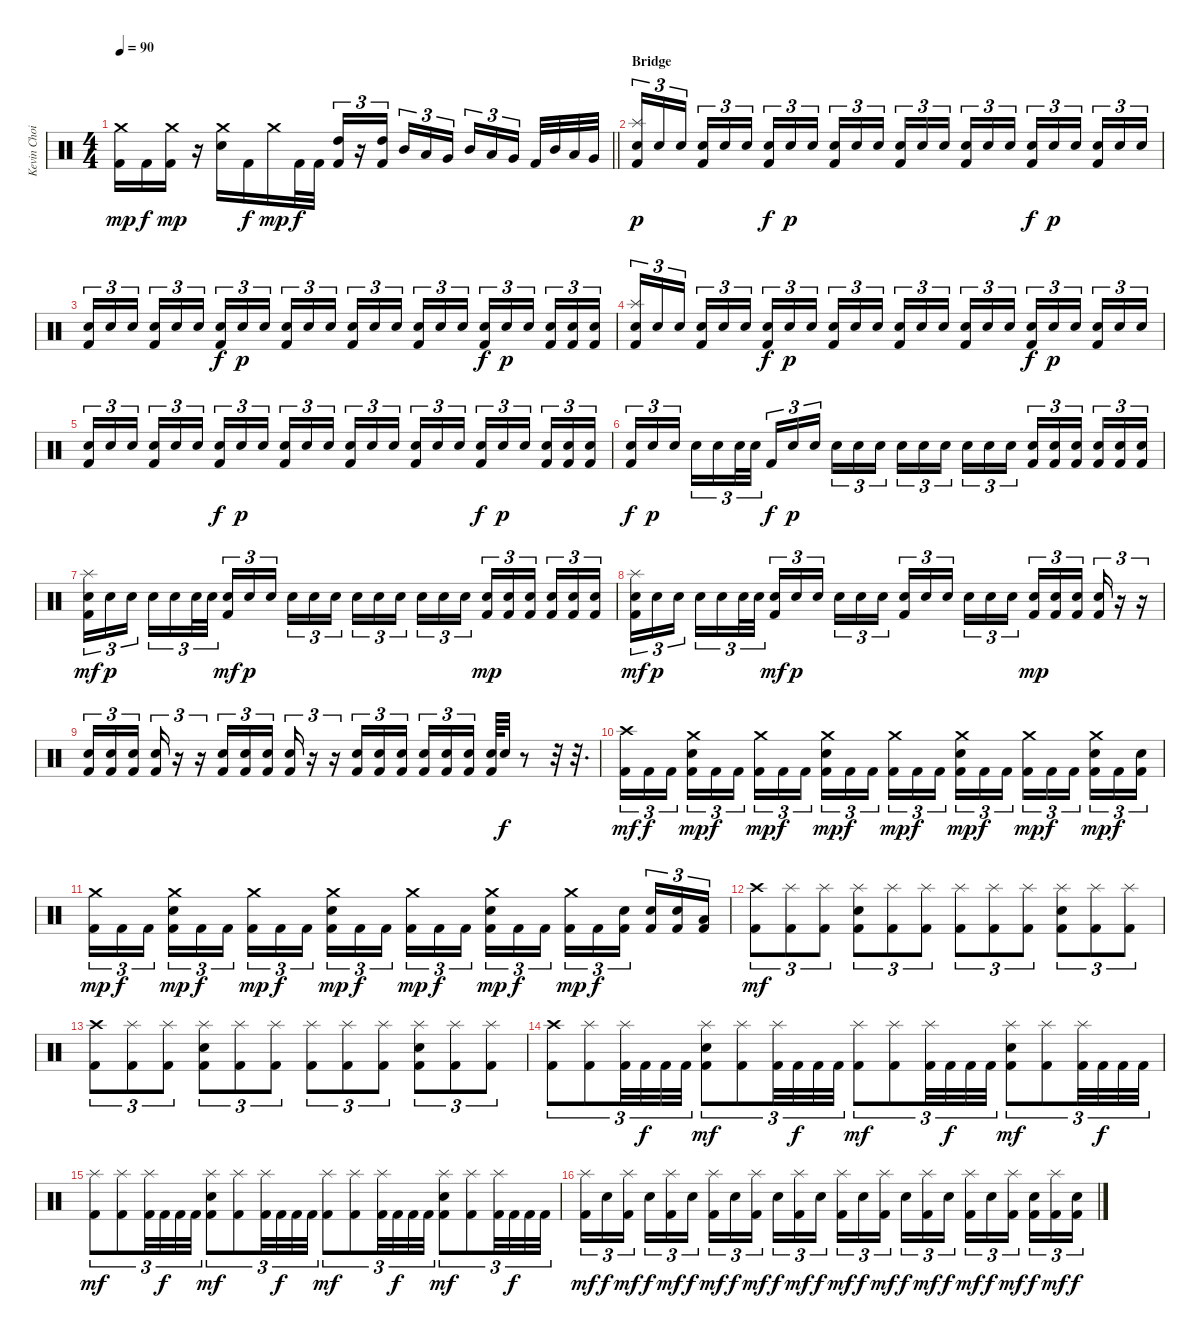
\track ("Kevin Choiral" "Kevin Choi") {instrument percussion}
\staff
\articulation defaults
\ts (4 4)
\tempo 90
\clef neutral
\barLineRight lightlight
\ks c
("Crash medium (hit)" "Kick (hit) 2").16{dy mp} "Kick (hit) 2".16{dy f} ("Crash medium (hit)" "Kick (hit) 2").16{dy mp} r.16 ("Crash medium (hit)" "Electric Snare (hit)").16 "Kick (hit) 2".16{dy f} "Crash medium (hit)".16{dy mp} "Kick (hit) 2".32{dy f} "Kick (hit) 2".32 ("High Tom (hit)" "Kick (hit) 2").16{tu (3 2)} r.16{tu (3 2)} ("High Tom (hit)" "Kick (hit) 2").16{tu (3 2) beam splitsecondary} "Mid Tom (hit)".16{tu (3 2)} "Low Tom (hit)".16{tu (3 2)} "Very Low Tom (hit)".16{tu (3 2)} "Mid Tom (hit)".16{tu (3 2)} "Low Tom (hit)".16{tu (3 2)} "Very Low Tom (hit)".16{tu (3 2) beam splitsecondary} "Kick (hit) 2".32 "Mid Tom (hit)".32 "Low Tom (hit)".32 "Very Low Tom (hit)".32 |
\section ("" "Bridge")
("Splash (hit)" "Snare (hit) 2" "Kick (hit) 2").16{tu (3 2) dy p} "Snare (hit) 2".16{tu (3 2)} "Snare (hit) 2".16{tu (3 2) beam splitsecondary} ("Snare (hit) 2" "Kick (hit) 2").16{tu (3 2)} "Snare (hit) 2".16{tu (3 2)} "Snare (hit) 2".16{tu (3 2)} ("Electric Snare (hit)" "Kick (hit) 2").16{tu (3 2) dy f} "Snare (hit) 2".16{tu (3 2) dy p} "Snare (hit) 2".16{tu (3 2) beam splitsecondary} ("Snare (hit) 2" "Kick (hit) 2").16{tu (3 2)} "Snare (hit) 2".16{tu (3 2)} "Snare (hit) 2".16{tu (3 2)} ("Snare (hit) 2" "Kick (hit) 2").16{tu (3 2)} "Snare (hit) 2".16{tu (3 2)} "Snare (hit) 2".16{tu (3 2) beam splitsecondary} ("Snare (hit) 2" "Kick (hit) 2").16{tu (3 2)} "Snare (hit) 2".16{tu (3 2)} "Snare (hit) 2".16{tu (3 2)} ("Electric Snare (hit)" "Kick (hit) 2").16{tu (3 2) dy f} "Snare (hit) 2".16{tu (3 2) dy p} "Snare (hit) 2".16{tu (3 2) beam splitsecondary} ("Snare (hit) 2" "Kick (hit) 2").16{tu (3 2)} "Snare (hit) 2".16{tu (3 2)} "Snare (hit) 2".16{tu (3 2)} |
("Snare (hit) 2" "Kick (hit) 2").16{tu (3 2)} "Snare (hit) 2".16{tu (3 2)} "Snare (hit) 2".16{tu (3 2) beam splitsecondary} ("Snare (hit) 2" "Kick (hit) 2").16{tu (3 2)} "Snare (hit) 2".16{tu (3 2)} "Snare (hit) 2".16{tu (3 2)} ("Electric Snare (hit)" "Kick (hit) 2").16{tu (3 2) dy f} "Snare (hit) 2".16{tu (3 2) dy p} "Snare (hit) 2".16{tu (3 2) beam splitsecondary} ("Snare (hit) 2" "Kick (hit) 2").16{tu (3 2)} "Snare (hit) 2".16{tu (3 2)} "Snare (hit) 2".16{tu (3 2)} ("Snare (hit) 2" "Kick (hit) 2").16{tu (3 2)} "Snare (hit) 2".16{tu (3 2)} "Snare (hit) 2".16{tu (3 2) beam splitsecondary} ("Snare (hit) 2" "Kick (hit) 2").16{tu (3 2)} "Snare (hit) 2".16{tu (3 2)} "Snare (hit) 2".16{tu (3 2)} ("Electric Snare (hit)" "Kick (hit) 2").16{tu (3 2) dy f} "Snare (hit) 2".16{tu (3 2) dy p} "Snare (hit) 2".16{tu (3 2) beam splitsecondary} ("Snare (hit) 2" "Kick (hit) 2").16{tu (3 2)} ("Snare (hit) 2" "Kick (hit) 2").16{tu (3 2)} ("Snare (hit) 2" "Kick (hit) 2").16{tu (3 2)} |
("Splash (hit)" "Snare (hit) 2" "Kick (hit) 2").16{tu (3 2)} "Snare (hit) 2".16{tu (3 2)} "Snare (hit) 2".16{tu (3 2) beam splitsecondary} ("Snare (hit) 2" "Kick (hit) 2").16{tu (3 2)} "Snare (hit) 2".16{tu (3 2)} "Snare (hit) 2".16{tu (3 2)} ("Electric Snare (hit)" "Kick (hit) 2").16{tu (3 2) dy f} "Snare (hit) 2".16{tu (3 2) dy p} "Snare (hit) 2".16{tu (3 2) beam splitsecondary} ("Snare (hit) 2" "Kick (hit) 2").16{tu (3 2)} "Snare (hit) 2".16{tu (3 2)} "Snare (hit) 2".16{tu (3 2)} ("Snare (hit) 2" "Kick (hit) 2").16{tu (3 2)} "Snare (hit) 2".16{tu (3 2)} "Snare (hit) 2".16{tu (3 2) beam splitsecondary} ("Snare (hit) 2" "Kick (hit) 2").16{tu (3 2)} "Snare (hit) 2".16{tu (3 2)} "Snare (hit) 2".16{tu (3 2)} ("Electric Snare (hit)" "Kick (hit) 2").16{tu (3 2) dy f} "Snare (hit) 2".16{tu (3 2) dy p} "Snare (hit) 2".16{tu (3 2) beam splitsecondary} ("Snare (hit) 2" "Kick (hit) 2").16{tu (3 2)} "Snare (hit) 2".16{tu (3 2)} "Snare (hit) 2".16{tu (3 2)} |
("Snare (hit) 2" "Kick (hit) 2").16{tu (3 2)} "Snare (hit) 2".16{tu (3 2)} "Snare (hit) 2".16{tu (3 2) beam splitsecondary} ("Snare (hit) 2" "Kick (hit) 2").16{tu (3 2)} "Snare (hit) 2".16{tu (3 2)} "Snare (hit) 2".16{tu (3 2)} ("Electric Snare (hit)" "Kick (hit) 2").16{tu (3 2) dy f} "Snare (hit) 2".16{tu (3 2) dy p} "Snare (hit) 2".16{tu (3 2) beam splitsecondary} ("Snare (hit) 2" "Kick (hit) 2").16{tu (3 2)} "Snare (hit) 2".16{tu (3 2)} "Snare (hit) 2".16{tu (3 2)} ("Snare (hit) 2" "Kick (hit) 2").16{tu (3 2)} "Snare (hit) 2".16{tu (3 2)} "Snare (hit) 2".16{tu (3 2) beam splitsecondary} ("Snare (hit) 2" "Kick (hit) 2").16{tu (3 2)} "Snare (hit) 2".16{tu (3 2)} "Snare (hit) 2".16{tu (3 2)} ("Electric Snare (hit)" "Kick (hit) 2").16{tu (3 2) dy f} "Snare (hit) 2".16{tu (3 2) dy p} "Snare (hit) 2".16{tu (3 2) beam splitsecondary} ("Snare (hit) 2" "Kick (hit) 2").16{tu (3 2)} ("Snare (hit) 2" "Kick (hit) 2").16{tu (3 2)} ("Snare (hit) 2" "Kick (hit) 2").16{tu (3 2)} |
("Electric Snare (hit)" "Kick (hit) 2").16{tu (3 2) dy f} "Snare (hit) 2".16{tu (3 2) dy p} "Snare (hit) 2".16{tu (3 2) beam splitsecondary} "Snare (hit) 2".16{tu (3 2)} "Snare (hit) 2".16{tu (3 2)} "Snare (hit) 2".32{tu (3 2)} "Snare (hit) 2".32{tu (3 2)} "Kick (hit) 2".16{tu (3 2) dy f} "Snare (hit) 2".16{tu (3 2) dy p} "Snare (hit) 2".16{tu (3 2) beam splitsecondary} "Snare (hit) 2".16{tu (3 2)} "Snare (hit) 2".16{tu (3 2)} "Snare (hit) 2".16{tu (3 2)} "Snare (hit) 2".16{tu (3 2)} "Snare (hit) 2".16{tu (3 2)} "Snare (hit) 2".16{tu (3 2) beam splitsecondary} "Snare (hit) 2".16{tu (3 2)} "Snare (hit) 2".16{tu (3 2)} "Snare (hit) 2".16{tu (3 2)} ("Snare (hit) 2" "Kick (hit) 2").16{tu (3 2)} ("Snare (hit) 2" "Kick (hit) 2").16{tu (3 2)} ("Snare (hit) 2" "Kick (hit) 2").16{tu (3 2) beam splitsecondary} ("Snare (hit) 2" "Kick (hit) 2").16{tu (3 2)} ("Snare (hit) 2" "Kick (hit) 2").16{tu (3 2)} ("Snare (hit) 2" "Kick (hit) 2").16{tu (3 2)} |
("Splash (hit)" "Electric Snare (hit)" "Kick (hit) 2").16{tu (3 2) dy mf} "Snare (hit) 2".16{tu (3 2) dy p} "Snare (hit) 2".16{tu (3 2) beam splitsecondary} "Snare (hit) 2".16{tu (3 2)} "Snare (hit) 2".16{tu (3 2)} "Snare (hit) 2".32{tu (3 2)} "Snare (hit) 2".32{tu (3 2)} ("Electric Snare (hit)" "Kick (hit) 2").16{tu (3 2) dy mf} "Snare (hit) 2".16{tu (3 2) dy p} "Snare (hit) 2".16{tu (3 2) beam splitsecondary} "Snare (hit) 2".16{tu (3 2)} "Snare (hit) 2".16{tu (3 2)} "Snare (hit) 2".16{tu (3 2)} "Snare (hit) 2".16{tu (3 2)} "Snare (hit) 2".16{tu (3 2)} "Snare (hit) 2".16{tu (3 2) beam splitsecondary} "Snare (hit) 2".16{tu (3 2)} "Snare (hit) 2".16{tu (3 2)} "Snare (hit) 2".16{tu (3 2)} ("Electric Snare (hit)" "Kick (hit) 2").16{tu (3 2) dy mp} ("Electric Snare (hit)" "Kick (hit) 2").16{tu (3 2)} ("Electric Snare (hit)" "Kick (hit) 2").16{tu (3 2) beam splitsecondary} ("Electric Snare (hit)" "Kick (hit) 2").16{tu (3 2)} ("Electric Snare (hit)" "Kick (hit) 2").16{tu (3 2)} ("Electric Snare (hit)" "Kick (hit) 2").16{tu (3 2)} |
("Splash (hit)" "Electric Snare (hit)" "Kick (hit) 2").16{tu (3 2) dy mf} "Snare (hit) 2".16{tu (3 2) dy p} "Snare (hit) 2".16{tu (3 2) beam splitsecondary} "Snare (hit) 2".16{tu (3 2)} "Snare (hit) 2".16{tu (3 2)} "Snare (hit) 2".32{tu (3 2)} "Snare (hit) 2".32{tu (3 2)} ("Electric Snare (hit)" "Kick (hit) 2").16{tu (3 2) dy mf} "Snare (hit) 2".16{tu (3 2) dy p} "Snare (hit) 2".16{tu (3 2) beam splitsecondary} "Snare (hit) 2".16{tu (3 2)} "Snare (hit) 2".16{tu (3 2)} "Snare (hit) 2".16{tu (3 2)} ("Snare (hit) 2" "Kick (hit) 2").16{tu (3 2)} "Snare (hit) 2".16{tu (3 2)} "Snare (hit) 2".16{tu (3 2) beam splitsecondary} "Snare (hit) 2".16{tu (3 2)} "Snare (hit) 2".16{tu (3 2)} "Snare (hit) 2".16{tu (3 2)} ("Electric Snare (hit)" "Kick (hit) 2").16{tu (3 2) dy mp} ("Electric Snare (hit)" "Kick (hit) 2").16{tu (3 2)} ("Electric Snare (hit)" "Kick (hit) 2").16{tu (3 2) beam splitsecondary} ("Electric Snare (hit)" "Kick (hit) 2").16{tu (3 2)} r.16{tu (3 2)} r.16{tu (3 2)} |
("Electric Snare (hit)" "Kick (hit) 2").16{tu (3 2)} ("Electric Snare (hit)" "Kick (hit) 2").16{tu (3 2)} ("Electric Snare (hit)" "Kick (hit) 2").16{tu (3 2) beam splitsecondary} ("Electric Snare (hit)" "Kick (hit) 2").16{tu (3 2)} r.16{tu (3 2)} r.16{tu (3 2)} ("Electric Snare (hit)" "Kick (hit) 2").16{tu (3 2)} ("Electric Snare (hit)" "Kick (hit) 2").16{tu (3 2)} ("Electric Snare (hit)" "Kick (hit) 2").16{tu (3 2) beam splitsecondary} ("Electric Snare (hit)" "Kick (hit) 2").16{tu (3 2)} r.16{tu (3 2)} r.16{tu (3 2)} ("Electric Snare (hit)" "Kick (hit) 2").16{tu (3 2)} ("Electric Snare (hit)" "Kick (hit) 2").16{tu (3 2)} ("Electric Snare (hit)" "Kick (hit) 2").16{tu (3 2) beam splitsecondary} ("Electric Snare (hit)" "Kick (hit) 2").16{tu (3 2)} ("Electric Snare (hit)" "Kick (hit) 2").16{tu (3 2)} ("Electric Snare (hit)" "Kick (hit) 2").16{tu (3 2)} ("Electric Snare (hit)" "Kick (hit) 2").64 "Electric Snare (hit)".32{dy f} r.8 r.32 r.32{d} |
("Crash high (hit)" "Kick (hit) 2").16{tu (3 2) dy mf} "Kick (hit) 2".16{tu (3 2) dy f} "Kick (hit) 2".16{tu (3 2) beam splitsecondary} ("Crash medium (hit)" "Electric Snare (hit)" "Kick (hit) 2").16{tu (3 2) dy mp} "Kick (hit) 2".16{tu (3 2) dy f} "Kick (hit) 2".16{tu (3 2)} ("Crash medium (hit)" "Kick (hit) 2").16{tu (3 2) dy mp} "Kick (hit) 2".16{tu (3 2) dy f} "Kick (hit) 2".16{tu (3 2) beam splitsecondary} ("Crash medium (hit)" "Electric Snare (hit)" "Kick (hit) 2").16{tu (3 2) dy mp} "Kick (hit) 2".16{tu (3 2) dy f} "Kick (hit) 2".16{tu (3 2)} ("Crash medium (hit)" "Kick (hit) 2").16{tu (3 2) dy mp} "Kick (hit) 2".16{tu (3 2) dy f} "Kick (hit) 2".16{tu (3 2) beam splitsecondary} ("Crash medium (hit)" "Electric Snare (hit)" "Kick (hit) 2").16{tu (3 2) dy mp} "Kick (hit) 2".16{tu (3 2) dy f} "Kick (hit) 2".16{tu (3 2)} ("Crash medium (hit)" "Kick (hit) 2").16{tu (3 2) dy mp} "Kick (hit) 2".16{tu (3 2) dy f} "Kick (hit) 2".16{tu (3 2) beam splitsecondary} ("Crash medium (hit)" "Electric Snare (hit)" "Kick (hit) 2").16{tu (3 2) dy mp} "Kick (hit) 2".16{tu (3 2) dy f} ("Electric Snare (hit)" "Kick (hit) 2").16{tu (3 2)} |
("Crash medium (hit)" "Kick (hit) 2").16{tu (3 2) dy mp} "Kick (hit) 2".16{tu (3 2) dy f} "Kick (hit) 2".16{tu (3 2) beam splitsecondary} ("Crash medium (hit)" "Electric Snare (hit)" "Kick (hit) 2").16{tu (3 2) dy mp} "Kick (hit) 2".16{tu (3 2) dy f} "Kick (hit) 2".16{tu (3 2)} ("Crash medium (hit)" "Kick (hit) 2").16{tu (3 2) dy mp} "Kick (hit) 2".16{tu (3 2) dy f} "Kick (hit) 2".16{tu (3 2) beam splitsecondary} ("Crash medium (hit)" "Electric Snare (hit)" "Kick (hit) 2").16{tu (3 2) dy mp} "Kick (hit) 2".16{tu (3 2) dy f} "Kick (hit) 2".16{tu (3 2)} ("Crash medium (hit)" "Kick (hit) 2").16{tu (3 2) dy mp} "Kick (hit) 2".16{tu (3 2) dy f} "Kick (hit) 2".16{tu (3 2) beam splitsecondary} ("Crash medium (hit)" "Electric Snare (hit)" "Kick (hit) 2").16{tu (3 2) dy mp} "Kick (hit) 2".16{tu (3 2) dy f} "Kick (hit) 2".16{tu (3 2)} ("Crash medium (hit)" "Kick (hit) 2").16{tu (3 2) dy mp} "Kick (hit) 2".16{tu (3 2) dy f} ("Electric Snare (hit)" "Kick (hit) 2").16{tu (3 2) beam splitsecondary} ("Electric Snare (hit)" "Kick (hit) 2").16{tu (3 2)} ("Electric Snare (hit)" "Kick (hit) 2").16{tu (3 2)} ("Low Tom (hit)" "Kick (hit) 2").16{tu (3 2)} |
("Crash high (hit)" "Kick (hit) 2").8{tu (3 2) dy mf} ("Splash (hit)" "Kick (hit) 2").8{tu (3 2)} ("Splash (hit)" "Kick (hit) 2").8{tu (3 2)} ("Splash (hit)" "Electric Snare (hit)" "Kick (hit) 2").8{tu (3 2)} ("Splash (hit)" "Kick (hit) 2").8{tu (3 2)} ("Splash (hit)" "Kick (hit) 2").8{tu (3 2)} ("Splash (hit)" "Kick (hit) 2").8{tu (3 2)} ("Splash (hit)" "Kick (hit) 2").8{tu (3 2)} ("Splash (hit)" "Kick (hit) 2").8{tu (3 2)} ("Splash (hit)" "Electric Snare (hit)" "Kick (hit) 2").8{tu (3 2)} ("Splash (hit)" "Kick (hit) 2").8{tu (3 2)} ("Splash (hit)" "Kick (hit) 2").8{tu (3 2)} |
("Crash high (hit)" "Kick (hit) 2").8{tu (3 2)} ("Splash (hit)" "Kick (hit) 2").8{tu (3 2)} ("Splash (hit)" "Kick (hit) 2").8{tu (3 2)} ("Splash (hit)" "Electric Snare (hit)" "Kick (hit) 2").8{tu (3 2)} ("Splash (hit)" "Kick (hit) 2").8{tu (3 2)} ("Splash (hit)" "Kick (hit) 2").8{tu (3 2)} ("Splash (hit)" "Kick (hit) 2").8{tu (3 2)} ("Splash (hit)" "Kick (hit) 2").8{tu (3 2)} ("Splash (hit)" "Kick (hit) 2").8{tu (3 2)} ("Splash (hit)" "Electric Snare (hit)" "Kick (hit) 2").8{tu (3 2)} ("Splash (hit)" "Kick (hit) 2").8{tu (3 2)} ("Splash (hit)" "Kick (hit) 2").8{tu (3 2)} |
("Crash high (hit)" "Kick (hit) 2").8{tu (3 2)} ("Splash (hit)" "Kick (hit) 2").8{tu (3 2)} ("Splash (hit)" "Kick (hit) 2").32{tu (3 2)} "Kick (hit) 2".32{tu (3 2) dy f} "Kick (hit) 2".32{tu (3 2)} "Kick (hit) 2".32{tu (3 2)} ("Splash (hit)" "Electric Snare (hit)" "Kick (hit) 2").8{tu (3 2) dy mf} ("Splash (hit)" "Kick (hit) 2").8{tu (3 2)} ("Splash (hit)" "Kick (hit) 2").32{tu (3 2)} "Kick (hit) 2".32{tu (3 2) dy f} "Kick (hit) 2".32{tu (3 2)} "Kick (hit) 2".32{tu (3 2)} ("Splash (hit)" "Kick (hit) 2").8{tu (3 2) dy mf} ("Splash (hit)" "Kick (hit) 2").8{tu (3 2)} ("Splash (hit)" "Kick (hit) 2").32{tu (3 2)} "Kick (hit) 2".32{tu (3 2) dy f} "Kick (hit) 2".32{tu (3 2)} "Kick (hit) 2".32{tu (3 2)} ("Splash (hit)" "Electric Snare (hit)" "Kick (hit) 2").8{tu (3 2) dy mf} ("Splash (hit)" "Kick (hit) 2").8{tu (3 2)} ("Splash (hit)" "Kick (hit) 2").32{tu (3 2)} "Kick (hit) 2".32{tu (3 2) dy f} "Kick (hit) 2".32{tu (3 2)} "Kick (hit) 2".32{tu (3 2)} |
("Splash (hit)" "Kick (hit) 2").8{tu (3 2) dy mf} ("Splash (hit)" "Kick (hit) 2").8{tu (3 2)} ("Splash (hit)" "Kick (hit) 2").32{tu (3 2)} "Kick (hit) 2".32{tu (3 2) dy f} "Kick (hit) 2".32{tu (3 2)} "Kick (hit) 2".32{tu (3 2)} ("Splash (hit)" "Electric Snare (hit)" "Kick (hit) 2").8{tu (3 2) dy mf} ("Splash (hit)" "Kick (hit) 2").8{tu (3 2)} ("Splash (hit)" "Kick (hit) 2").32{tu (3 2)} "Kick (hit) 2".32{tu (3 2) dy f} "Kick (hit) 2".32{tu (3 2)} "Kick (hit) 2".32{tu (3 2)} ("Splash (hit)" "Kick (hit) 2").8{tu (3 2) dy mf} ("Splash (hit)" "Kick (hit) 2").8{tu (3 2)} ("Splash (hit)" "Kick (hit) 2").32{tu (3 2)} "Kick (hit) 2".32{tu (3 2) dy f} "Kick (hit) 2".32{tu (3 2)} "Kick (hit) 2".32{tu (3 2)} ("Splash (hit)" "Electric Snare (hit)" "Kick (hit) 2").8{tu (3 2) dy mf} ("Splash (hit)" "Kick (hit) 2").8{tu (3 2)} ("Splash (hit)" "Kick (hit) 2").32{tu (3 2)} "Kick (hit) 2".32{tu (3 2) dy f} "Kick (hit) 2".32{tu (3 2)} "Kick (hit) 2".32{tu (3 2)} |
("Splash (hit)" "Kick (hit) 2").16{tu (3 2) dy mf} "Electric Snare (hit)".16{tu (3 2) dy f} ("Splash (hit)" "Kick (hit) 2").16{tu (3 2) dy mf beam splitsecondary} "Electric Snare (hit)".16{tu (3 2) dy f} ("Splash (hit)" "Kick (hit) 2").16{tu (3 2) dy mf} "Electric Snare (hit)".16{tu (3 2) dy f} ("Splash (hit)" "Kick (hit) 2").16{tu (3 2) dy mf} "Electric Snare (hit)".16{tu (3 2) dy f} ("Splash (hit)" "Kick (hit) 2").16{tu (3 2) dy mf beam splitsecondary} "Electric Snare (hit)".16{tu (3 2) dy f} ("Splash (hit)" "Kick (hit) 2").16{tu (3 2) dy mf} "Electric Snare (hit)".16{tu (3 2) dy f} ("Splash (hit)" "Kick (hit) 2").16{tu (3 2) dy mf} "Electric Snare (hit)".16{tu (3 2) dy f} ("Splash (hit)" "Kick (hit) 2").16{tu (3 2) dy mf beam splitsecondary} "Electric Snare (hit)".16{tu (3 2) dy f} ("Splash (hit)" "Kick (hit) 2").16{tu (3 2) dy mf} "Electric Snare (hit)".16{tu (3 2) dy f} ("Splash (hit)" "Kick (hit) 2").16{tu (3 2) dy mf} "Electric Snare (hit)".16{tu (3 2) dy f} ("Splash (hit)" "Kick (hit) 2").16{tu (3 2) dy mf beam splitsecondary} ("Electric Snare (hit)" "Kick (hit) 2").16{tu (3 2) dy f} ("Splash (hit)" "Kick (hit) 2").16{tu (3 2) dy mf} ("Electric Snare (hit)" "Kick (hit) 2").16{tu (3 2) dy f}
